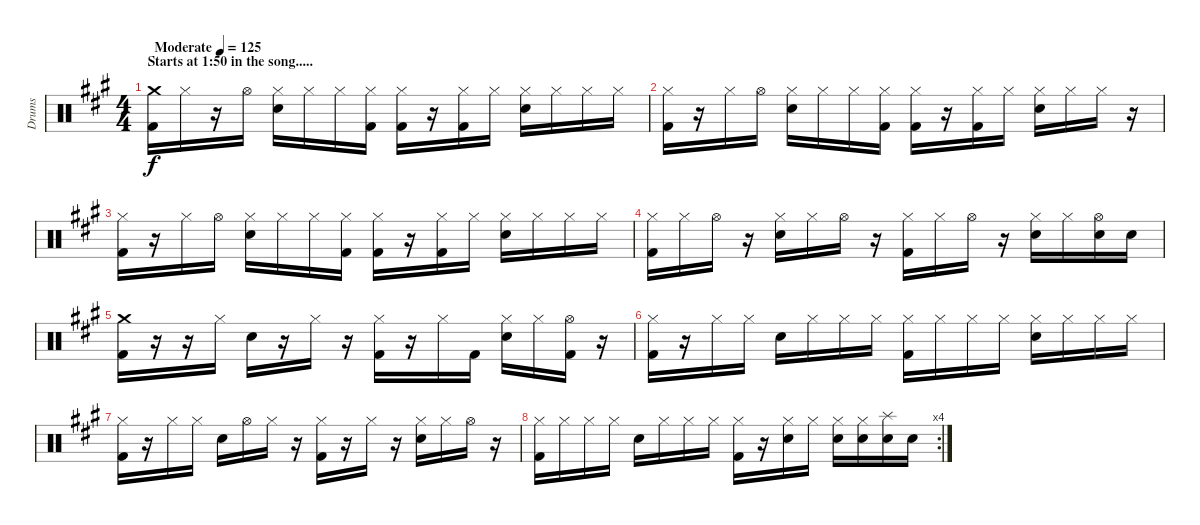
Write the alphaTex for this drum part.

\track ("Drums" "Drums") {instrument percussion}
\staff {score}
\articulation defaults
\ts (4 4)
\section ("" "Starts at 1:50 in the song.....")
\tempo (125 "Moderate")
\clef neutral
\ks f#minor
("Crash medium (hit)" "Kick (hit) 2").16{dy f} "Hi-Hat (closed)".16 r.16 "Hi-Hat (open)".16 ("Hi-Hat (closed)" "Electric Snare (hit)").16 "Hi-Hat (closed)".16 "Hi-Hat (closed)".16 ("Hi-Hat (closed)" "Kick (hit) 2").16 ("Hi-Hat (closed)" "Kick (hit) 2").16 r.16 ("Hi-Hat (closed)" "Kick (hit) 2").16 "Hi-Hat (closed)".16 ("Hi-Hat (closed)" "Electric Snare (hit)").16 "Hi-Hat (closed)".16 "Hi-Hat (closed)".16 "Hi-Hat (closed)".16 |
("Hi-Hat (closed)" "Kick (hit) 2").16 r.16 "Hi-Hat (closed)".16 "Hi-Hat (open)".16 ("Hi-Hat (closed)" "Electric Snare (hit)").16 "Hi-Hat (closed)".16 "Hi-Hat (closed)".16 ("Hi-Hat (closed)" "Kick (hit) 2").16 ("Hi-Hat (closed)" "Kick (hit) 2").16 r.16 ("Hi-Hat (closed)" "Kick (hit) 2").16 "Hi-Hat (closed)".16 ("Hi-Hat (closed)" "Electric Snare (hit)").16 "Hi-Hat (closed)".16 "Hi-Hat (closed)".16 r.16 |
("Hi-Hat (closed)" "Kick (hit) 2").16 r.16 "Hi-Hat (closed)".16 "Hi-Hat (open)".16 ("Hi-Hat (closed)" "Electric Snare (hit)").16 "Hi-Hat (closed)".16 "Hi-Hat (closed)".16 ("Hi-Hat (closed)" "Kick (hit) 2").16 ("Hi-Hat (closed)" "Kick (hit) 2").16 r.16 ("Hi-Hat (closed)" "Kick (hit) 2").16 "Hi-Hat (closed)".16 ("Hi-Hat (closed)" "Electric Snare (hit)").16 "Hi-Hat (closed)".16 "Hi-Hat (closed)".16 "Hi-Hat (closed)".16 |
("Hi-Hat (closed)" "Kick (hit) 2").16 "Hi-Hat (closed)".16 "Hi-Hat (open)".16 r.16 ("Hi-Hat (closed)" "Electric Snare (hit)").16 "Hi-Hat (closed)".16 "Hi-Hat (open)".16 r.16 ("Hi-Hat (closed)" "Kick (hit) 2").16 "Hi-Hat (closed)".16 "Hi-Hat (open)".16 r.16 ("Hi-Hat (closed)" "Electric Snare (hit)").16 "Hi-Hat (closed)".16 ("Hi-Hat (open)" "Electric Snare (hit)").16 "Electric Snare (hit)".16 |
("Crash medium (hit)" "Kick (hit) 2").16 r.16 r.16 "Hi-Hat (closed)".16 "Electric Snare (hit)".16 r.16 "Hi-Hat (closed)".16 r.16 ("Hi-Hat (closed)" "Kick (hit) 2").16 r.16 "Hi-Hat (closed)".16 "Kick (hit) 2".16 ("Hi-Hat (closed)" "Electric Snare (hit)").16 "Hi-Hat (closed)".16 ("Hi-Hat (open)" "Kick (hit) 2").16 r.16 |
("Hi-Hat (closed)" "Kick (hit) 2").16 r.16 "Hi-Hat (closed)".16 "Hi-Hat (closed)".16 "Electric Snare (hit)".16 "Hi-Hat (closed)".16 "Hi-Hat (closed)".16 "Hi-Hat (closed)".16 ("Hi-Hat (closed)" "Kick (hit) 2").16 "Hi-Hat (closed)".16 "Hi-Hat (closed)".16 "Hi-Hat (closed)".16 ("Hi-Hat (closed)" "Electric Snare (hit)").16 "Hi-Hat (closed)".16 "Hi-Hat (closed)".16 "Hi-Hat (closed)".16 |
("Hi-Hat (closed)" "Kick (hit) 2").16 r.16 "Hi-Hat (closed)".16 "Hi-Hat (closed)".16 "Electric Snare (hit)".16 "Hi-Hat (open)".16 "Hi-Hat (closed)".16 r.16 ("Hi-Hat (closed)" "Kick (hit) 2").16 r.16 "Hi-Hat (closed)".16 r.16 ("Hi-Hat (closed)" "Electric Snare (hit)").16 "Hi-Hat (closed)".16 "Hi-Hat (open)".16 r.16 |
\rc 4
("Hi-Hat (closed)" "Kick (hit) 2").16 "Hi-Hat (closed)".16 "Hi-Hat (closed)".16 "Hi-Hat (closed)".16 "Electric Snare (hit)".16 "Hi-Hat (closed)".16 "Hi-Hat (closed)".16 "Hi-Hat (closed)".16 ("Hi-Hat (closed)" "Kick (hit) 2").16 r.16 ("Hi-Hat (closed)" "Electric Snare (hit)").16 "Hi-Hat (closed)".16 ("Hi-Hat (closed)" "Electric Snare (hit)").16 ("Hi-Hat (closed)" "Electric Snare (hit)").16 ("Splash (hit)" "Electric Snare (hit)").16 "Electric Snare (hit)".16
